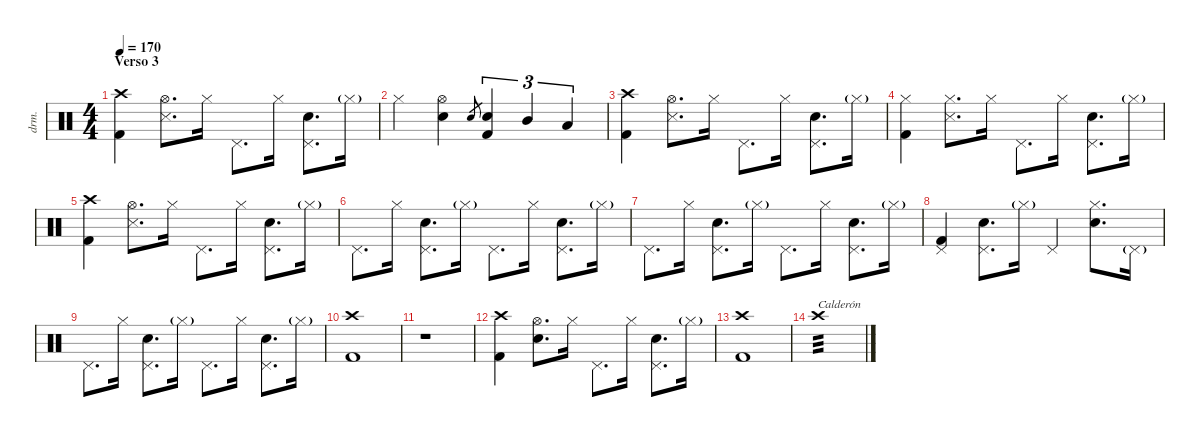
\defaultSystemsLayout 4
\hideDynamics
\bracketExtendMode nobrackets
\otherSystemsTrackNameOrientation horizontal
\track ("Drums" "drm.") {instrument percussion}
\staff {score}
\articulation defaults
\ts (4 4)
\section ("" "Verso 3")
\tempo 170
\clef neutral
\ks c
("Crash high (hit)" "Kick (hit) 2").4{dy f beam Down} ("Hi-Hat (open)" "Snare (side stick) 3").8{d beam Down} "Hi-Hat (closed)".16{beam Down} "Pedal Hi-Hat (hit)".8{d beam Down} "Hi-Hat (closed)".16{beam Down} ("Pedal Hi-Hat (hit)" "Snare (hit) 2").8{d beam Down} "Hi-Hat (closed)"{g}.16{dy mf beam Down} |
"Hi-Hat (closed)".4{dy f beam Down} ("Hi-Hat (open)" "Snare (hit) 2").4{beam Down} "Snare (hit) 2".8{gr dy mf beam Up} ("Snare (hit) 2" "Kick (hit) 2").4{tu (3 2) dy f beam Up} "Mid Tom (hit)".4{tu (3 2) beam Up} "Low Tom (hit)".4{tu (3 2) beam Up} |
("Crash high (hit)" "Kick (hit) 2").4{beam Down} ("Hi-Hat (open)" "Snare (side stick) 3").8{d beam Down} "Hi-Hat (closed)".16{beam Down} "Pedal Hi-Hat (hit)".8{d beam Down} "Hi-Hat (closed)".16{beam Down} ("Pedal Hi-Hat (hit)" "Snare (hit) 2").8{d beam Down} "Hi-Hat (closed)"{g}.16{dy mf beam Down} |
("Hi-Hat (closed)" "Kick (hit) 2").4{dy f beam Down} ("Hi-Hat (closed)" "Snare (side stick) 3").8{d beam Down} "Hi-Hat (closed)".16{beam Down} "Pedal Hi-Hat (hit)".8{d beam Down} "Hi-Hat (closed)".16{beam Down} ("Pedal Hi-Hat (hit)" "Snare (hit) 2").8{d beam Down} "Hi-Hat (closed)"{g}.16{dy mf beam Down} |
("Crash high (hit)" "Kick (hit) 2").4{dy f beam Down} ("Hi-Hat (open)" "Snare (side stick) 3").8{d beam Down} "Hi-Hat (closed)".16{beam Down} "Pedal Hi-Hat (hit)".8{d beam Down} "Hi-Hat (closed)".16{beam Down} ("Pedal Hi-Hat (hit)" "Snare (hit) 2").8{d beam Down} "Hi-Hat (closed)"{g}.16{dy mf beam Down} |
"Pedal Hi-Hat (hit)".8{d dy f beam Down} "Hi-Hat (closed)".16{beam Down} ("Pedal Hi-Hat (hit)" "Snare (hit) 2").8{d beam Down} "Hi-Hat (closed)"{g}.16{dy mf beam Down} "Pedal Hi-Hat (hit)".8{d dy f beam Down} "Hi-Hat (closed)".16{beam Down} ("Pedal Hi-Hat (hit)" "Snare (hit) 2").8{d beam Down} "Hi-Hat (closed)"{g}.16{dy mf beam Down} |
"Pedal Hi-Hat (hit)".8{d dy f beam Down} "Hi-Hat (closed)".16{beam Down} ("Pedal Hi-Hat (hit)" "Snare (hit) 2").8{d beam Down} "Hi-Hat (closed)"{g}.16{dy mf beam Down} "Pedal Hi-Hat (hit)".8{d dy f beam Down} "Hi-Hat (closed)".16{beam Down} ("Pedal Hi-Hat (hit)" "Snare (hit) 2").8{d beam Down} "Hi-Hat (closed)"{g}.16{dy mf beam Down} |
("Pedal Hi-Hat (hit)" "Kick (hit) 2").4{dy f beam Up} ("Pedal Hi-Hat (hit)" "Snare (hit) 2").8{d beam Down} "Hi-Hat (closed)"{g}.16{dy mf beam Down} "Pedal Hi-Hat (hit)".4{dy f beam Up} ("Hi-Hat (closed)" "Snare (hit) 2").8{d beam Down} "Pedal Hi-Hat (hit)"{g}.16{dy mf beam Down} |
"Pedal Hi-Hat (hit)".8{d dy f beam Down} "Hi-Hat (closed)".16{beam Down} ("Pedal Hi-Hat (hit)" "Snare (hit) 2").8{d beam Down} "Hi-Hat (closed)"{g}.16{dy mf beam Down} "Pedal Hi-Hat (hit)".8{d dy f beam Down} "Hi-Hat (closed)".16{beam Down} ("Pedal Hi-Hat (hit)" "Snare (hit) 2").8{d beam Down} "Hi-Hat (closed)"{g}.16{dy mf beam Down} |
("Crash high (hit)" "Kick (hit) 2").1{beam Down} |
r.1{beam Down} |
("Crash high (hit)" "Kick (hit) 2").4{dy f beam Down} ("Hi-Hat (open)" "Snare (hit) 2").8{d beam Down} "Hi-Hat (closed)".16{beam Down} "Pedal Hi-Hat (hit)".8{d beam Down} "Hi-Hat (closed)".16{beam Down} ("Pedal Hi-Hat (hit)" "Snare (hit) 2").8{d beam Down} "Hi-Hat (closed)"{g}.16{dy mf beam Down} |
("Crash high (hit)" "Kick (hit) 2").1{dy f beam Down} |
"Crash high (hit)".1{txt "Calderón" tp 3 beam Down}
